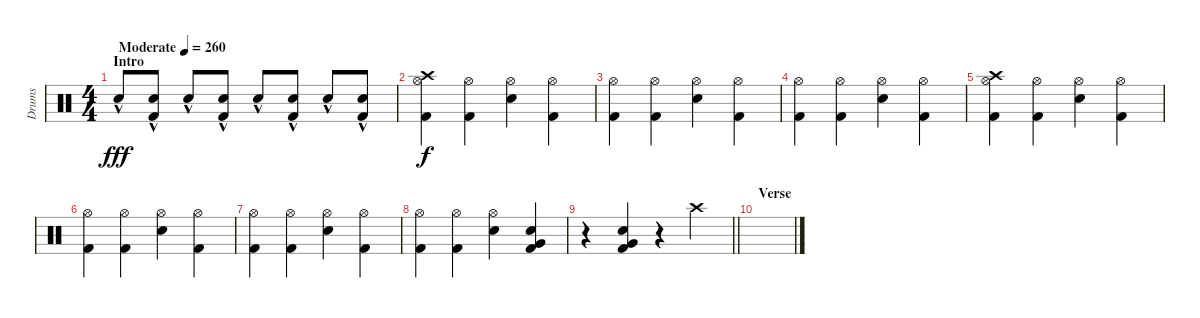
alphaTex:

\track ("Drums" "Drums") {instrument percussion bank 2}
\staff {score}
\articulation defaults
\ts (4 4)
\section ("" "Intro")
\tempo (260 "Moderate")
\clef neutral
\ks c "Snare (hit) 2"{hac}.8{dy fff}
("Kick (hit) 2" "Snare (hit) 2"{hac}).8 "Snare (hit) 2"{hac}.8 ("Kick (hit) 2" "Snare (hit) 2"{hac}).8 "Snare (hit) 2"{hac}.8 ("Kick (hit) 2"{hac} "Snare (hit) 2"{hac}).8 "Snare (hit) 2"{hac}.8 ("Kick (hit) 2"{hac} "Snare (hit) 2"{hac}).8 |
("Kick (hit) 2" "Hi-Hat (open)" "Crash high (hit)").4{dy f} ("Kick (hit) 2" "Hi-Hat (open)").4 ("Snare (hit) 2" "Hi-Hat (open)").4 ("Kick (hit) 2" "Hi-Hat (open)").4 |
("Kick (hit) 2" "Hi-Hat (open)").4 ("Kick (hit) 2" "Hi-Hat (open)").4 ("Snare (hit) 2" "Hi-Hat (open)").4 ("Kick (hit) 2" "Hi-Hat (open)").4 |
("Kick (hit) 2" "Hi-Hat (open)").4 ("Kick (hit) 2" "Hi-Hat (open)").4 ("Snare (hit) 2" "Hi-Hat (open)").4 ("Kick (hit) 2" "Hi-Hat (open)").4 |
("Kick (hit) 2" "Hi-Hat (open)" "Crash high (hit)").4 ("Kick (hit) 2" "Hi-Hat (open)").4 ("Snare (hit) 2" "Hi-Hat (open)").4 ("Kick (hit) 2" "Hi-Hat (open)").4 |
("Kick (hit) 2" "Hi-Hat (open)").4 ("Kick (hit) 2" "Hi-Hat (open)").4 ("Snare (hit) 2" "Hi-Hat (open)").4 ("Kick (hit) 2" "Hi-Hat (open)").4 |
("Kick (hit) 2" "Hi-Hat (open)").4 ("Kick (hit) 2" "Hi-Hat (open)").4 ("Snare (hit) 2" "Hi-Hat (open)").4 ("Kick (hit) 2" "Hi-Hat (open)").4 |
("Kick (hit) 2" "Hi-Hat (open)").4 ("Kick (hit) 2" "Hi-Hat (open)").4 ("Snare (hit) 2" "Hi-Hat (open)").4 ("Kick (hit) 2" "Snare (hit) 2" "Very Low Tom (hit)").4 |
\barLineRight lightlight
r.4 ("Kick (hit) 2" "Snare (hit) 2" "Very Low Tom (hit)").4 r.4 "Crash high (hit)".4 |
\section ("" "Verse")
